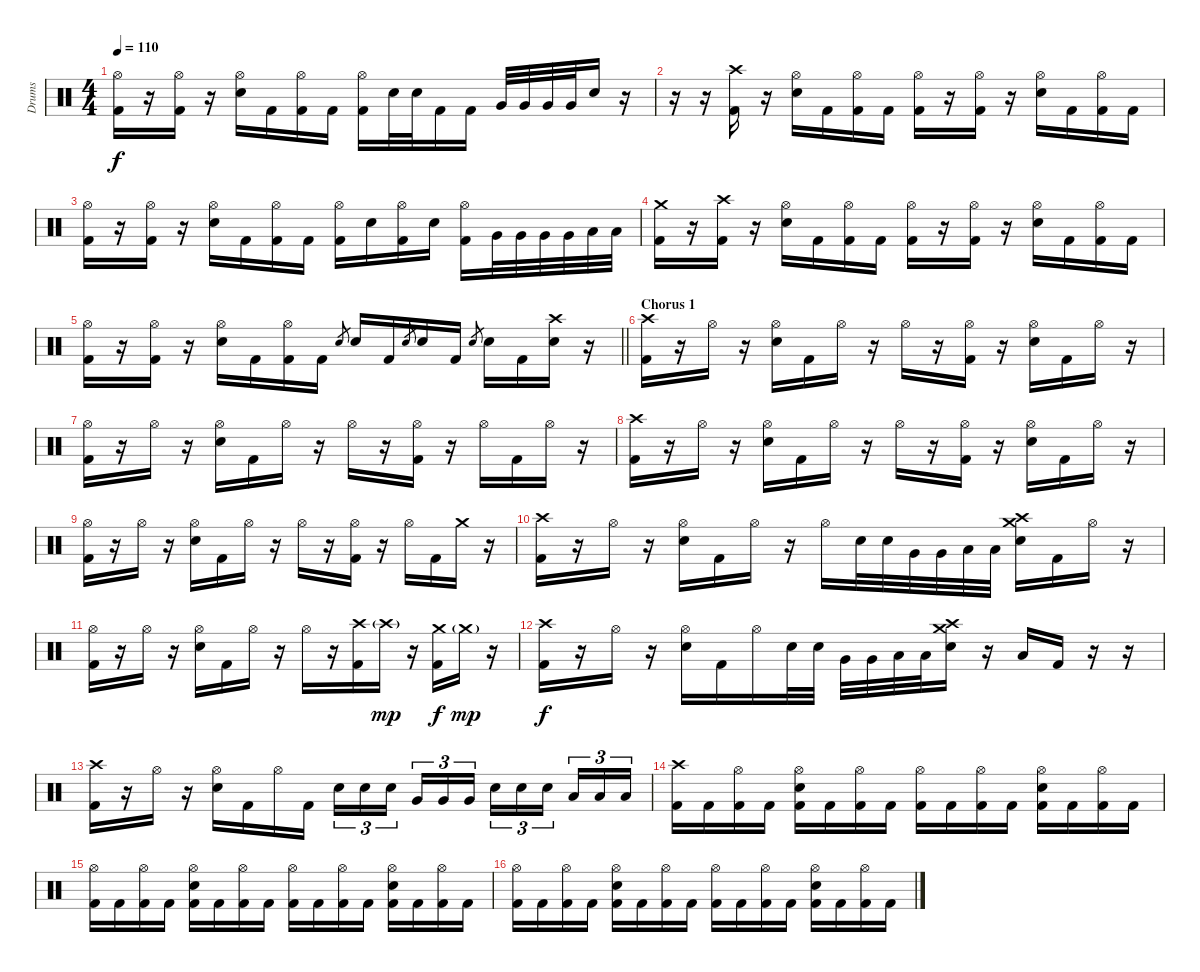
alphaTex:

\track ("Drums" "Drums") {instrument percussion}
\staff {score}
\articulation defaults
\ts (4 4)
\tempo 110
\clef neutral
\ks c
("Hi-Hat (open)" "Kick (hit) 2").16{dy f} r.16 ("Hi-Hat (open)" "Kick (hit) 2").16 r.16 ("Hi-Hat (open)" "Electric Snare (hit)").16 "Kick (hit) 2".16 ("Hi-Hat (open)" "Kick (hit) 2").16 "Kick (hit) 2".16 ("Hi-Hat (open)" "Kick (hit) 2").16 "Electric Snare (hit)".32 "Electric Snare (hit)".32 "Kick (hit) 2".16 "Kick (hit) 2".16 "Very Low Tom (hit)".32 "Very Low Tom (hit)".32 "Very Low Tom (hit)".32 "Very Low Tom (hit)".32 "Electric Snare (hit)".16 r.16 |
r.16 r.16 ("Crash high (hit)" "Kick (hit) 2").16 r.16 ("Hi-Hat (open)" "Electric Snare (hit)").16 "Kick (hit) 2".16 ("Hi-Hat (open)" "Kick (hit) 2").16 "Kick (hit) 2".16 ("Hi-Hat (open)" "Kick (hit) 2").16 r.16 ("Hi-Hat (open)" "Kick (hit) 2").16 r.16 ("Hi-Hat (open)" "Electric Snare (hit)").16 "Kick (hit) 2".16 ("Hi-Hat (open)" "Kick (hit) 2").16 "Kick (hit) 2".16 |
("Hi-Hat (open)" "Kick (hit) 2").16 r.16 ("Hi-Hat (open)" "Kick (hit) 2").16 r.16 ("Hi-Hat (open)" "Electric Snare (hit)").16 "Kick (hit) 2".16 ("Hi-Hat (open)" "Kick (hit) 2").16 "Kick (hit) 2".16 ("Hi-Hat (open)" "Kick (hit) 2").16 "Electric Snare (hit)".16 ("Hi-Hat (open)" "Kick (hit) 2").16 "Electric Snare (hit)".16 ("Hi-Hat (open)" "Kick (hit) 2").16 "Very Low Tom (hit)".32 "Very Low Tom (hit)".32 "Very Low Tom (hit)".32 "Very Low Tom (hit)".32 "Low Floor Tom (hit)".32 "Low Floor Tom (hit)".32 |
("Crash medium (hit)" "Kick (hit) 2").16 r.16 ("Crash high (hit)" "Kick (hit) 2").16 r.16 ("Hi-Hat (open)" "Electric Snare (hit)").16 "Kick (hit) 2".16 ("Hi-Hat (open)" "Kick (hit) 2").16 "Kick (hit) 2".16 ("Hi-Hat (open)" "Kick (hit) 2").16 r.16 ("Hi-Hat (open)" "Kick (hit) 2").16 r.16 ("Hi-Hat (open)" "Electric Snare (hit)").16 "Kick (hit) 2".16 ("Hi-Hat (open)" "Kick (hit) 2").16 "Kick (hit) 2".16 |
\barLineRight lightlight
("Hi-Hat (open)" "Kick (hit) 2").16 r.16 ("Hi-Hat (open)" "Kick (hit) 2").16 r.16 ("Hi-Hat (open)" "Electric Snare (hit)").16 "Kick (hit) 2".16 ("Hi-Hat (open)" "Kick (hit) 2").16 "Kick (hit) 2".16 "Electric Snare (hit)".8{gr} "Electric Snare (hit)".16 "Kick (hit) 2".16 "Electric Snare (hit)".8{gr} "Electric Snare (hit)".16 "Kick (hit) 2".16 "Electric Snare (hit)".8{gr} "Electric Snare (hit)".16 "Kick (hit) 2".16 ("Crash high (hit)" "Electric Snare (hit)").16 r.16 |
\section ("" "Chorus 1")
("Crash high (hit)" "Kick (hit) 2").16 r.16 "Hi-Hat (open)".16 r.16 ("Hi-Hat (open)" "Electric Snare (hit)").16 "Kick (hit) 2".16 "Hi-Hat (open)".16 r.16 "Hi-Hat (open)".16 r.16 ("Hi-Hat (open)" "Kick (hit) 2").16 r.16 ("Hi-Hat (open)" "Electric Snare (hit)").16 "Kick (hit) 2".16 "Hi-Hat (open)".16 r.16 |
("Hi-Hat (open)" "Kick (hit) 2").16 r.16 "Hi-Hat (open)".16 r.16 ("Hi-Hat (open)" "Electric Snare (hit)").16 "Kick (hit) 2".16 "Hi-Hat (open)".16 r.16 "Hi-Hat (open)".16 r.16 ("Hi-Hat (open)" "Kick (hit) 2").16 r.16 "Hi-Hat (open)".16 "Kick (hit) 2".16 "Hi-Hat (open)".16 r.16 |
("Crash high (hit)" "Kick (hit) 2").16 r.16 "Hi-Hat (open)".16 r.16 ("Hi-Hat (open)" "Electric Snare (hit)").16 "Kick (hit) 2".16 "Hi-Hat (open)".16 r.16 "Hi-Hat (open)".16 r.16 ("Hi-Hat (open)" "Kick (hit) 2").16 r.16 ("Hi-Hat (open)" "Electric Snare (hit)").16 "Kick (hit) 2".16 "Hi-Hat (open)".16 r.16 |
("Hi-Hat (open)" "Kick (hit) 2").16 r.16 "Hi-Hat (open)".16 r.16 ("Hi-Hat (open)" "Electric Snare (hit)").16 "Kick (hit) 2".16 "Hi-Hat (open)".16 r.16 "Hi-Hat (open)".16 r.16 ("Hi-Hat (open)" "Kick (hit) 2").16 r.16 "Hi-Hat (open)".16 "Kick (hit) 2".16 "Crash medium (hit)".16 r.16 |
("Crash high (hit)" "Kick (hit) 2").16 r.16 "Hi-Hat (open)".16 r.16 ("Hi-Hat (open)" "Electric Snare (hit)").16 "Kick (hit) 2".16 "Hi-Hat (open)".16 r.16 "Hi-Hat (open)".16 "Electric Snare (hit)".32 "Electric Snare (hit)".32 "Very Low Tom (hit)".32 "Very Low Tom (hit)".32 "Low Floor Tom (hit)".32 "Low Floor Tom (hit)".32 ("Crash high (hit)" "Electric Snare (hit)" "Crash medium (hit)").16 "Kick (hit) 2".16 "Hi-Hat (open)".16 r.16 |
("Hi-Hat (open)" "Kick (hit) 2").16 r.16 "Hi-Hat (open)".16 r.16 ("Hi-Hat (open)" "Electric Snare (hit)").16 "Kick (hit) 2".16 "Hi-Hat (open)".16 r.16 "Hi-Hat (open)".16 r.16 ("Crash high (hit)" "Kick (hit) 2").16 "Crash high (hit)"{g}.16{dy mp} r.16 ("Crash medium (hit)" "Kick (hit) 2").16{dy f} "Crash medium (hit)"{g}.16{dy mp} r.16 |
("Crash high (hit)" "Kick (hit) 2").16{dy f} r.16 "Hi-Hat (open)".16 r.16 ("Hi-Hat (open)" "Electric Snare (hit)").16 "Kick (hit) 2".16 "Hi-Hat (open)".16 "Electric Snare (hit)".32 "Electric Snare (hit)".32 "Very Low Tom (hit)".32 "Very Low Tom (hit)".32 "Low Floor Tom (hit)".32 "Low Floor Tom (hit)".32 ("Crash high (hit)" "Electric Snare (hit)" "Crash medium (hit)").16 r.16 "Low Floor Tom (hit)".16 "Kick (hit) 2".16 r.16 r.16 |
("Crash high (hit)" "Kick (hit) 2").16 r.16 "Hi-Hat (open)".16 r.16 ("Hi-Hat (open)" "Electric Snare (hit)").16 "Kick (hit) 2".16 "Hi-Hat (open)".16 "Kick (hit) 2".16 "Electric Snare (hit)".16{tu (3 2)} "Electric Snare (hit)".16{tu (3 2)} "Electric Snare (hit)".16{tu (3 2) beam splitsecondary} "Very Low Tom (hit)".16{tu (3 2)} "Very Low Tom (hit)".16{tu (3 2)} "Very Low Tom (hit)".16{tu (3 2)} "Electric Snare (hit)".16{tu (3 2)} "Electric Snare (hit)".16{tu (3 2)} "Electric Snare (hit)".16{tu (3 2) beam splitsecondary} "Low Floor Tom (hit)".16{tu (3 2)} "Low Floor Tom (hit)".16{tu (3 2)} "Low Floor Tom (hit)".16{tu (3 2)} |
("Crash high (hit)" "Kick (hit) 2").16 "Kick (hit) 2".16 ("Hi-Hat (open)" "Kick (hit) 2").16 "Kick (hit) 2".16 ("Hi-Hat (open)" "Kick (hit) 2" "Electric Snare (hit)").16 "Kick (hit) 2".16 ("Hi-Hat (open)" "Kick (hit) 2").16 "Kick (hit) 2".16 ("Hi-Hat (open)" "Kick (hit) 2").16 "Kick (hit) 2".16 ("Hi-Hat (open)" "Kick (hit) 2").16 "Kick (hit) 2".16 ("Hi-Hat (open)" "Kick (hit) 2" "Electric Snare (hit)").16 "Kick (hit) 2".16 ("Hi-Hat (open)" "Kick (hit) 2").16 "Kick (hit) 2".16 |
("Hi-Hat (open)" "Kick (hit) 2").16 "Kick (hit) 2".16 ("Hi-Hat (open)" "Kick (hit) 2").16 "Kick (hit) 2".16 ("Hi-Hat (open)" "Kick (hit) 2" "Electric Snare (hit)").16 "Kick (hit) 2".16 ("Hi-Hat (open)" "Kick (hit) 2").16 "Kick (hit) 2".16 ("Hi-Hat (open)" "Kick (hit) 2").16 "Kick (hit) 2".16 ("Hi-Hat (open)" "Kick (hit) 2").16 "Kick (hit) 2".16 ("Hi-Hat (open)" "Kick (hit) 2" "Electric Snare (hit)").16 "Kick (hit) 2".16 ("Hi-Hat (open)" "Kick (hit) 2").16 "Kick (hit) 2".16 |
("Hi-Hat (open)" "Kick (hit) 2").16 "Kick (hit) 2".16 ("Hi-Hat (open)" "Kick (hit) 2").16 "Kick (hit) 2".16 ("Hi-Hat (open)" "Kick (hit) 2" "Electric Snare (hit)").16 "Kick (hit) 2".16 ("Hi-Hat (open)" "Kick (hit) 2").16 "Kick (hit) 2".16 ("Hi-Hat (open)" "Kick (hit) 2").16 "Kick (hit) 2".16 ("Hi-Hat (open)" "Kick (hit) 2").16 "Kick (hit) 2".16 ("Hi-Hat (open)" "Kick (hit) 2" "Electric Snare (hit)").16 "Kick (hit) 2".16 ("Hi-Hat (open)" "Kick (hit) 2").16 "Kick (hit) 2".16
